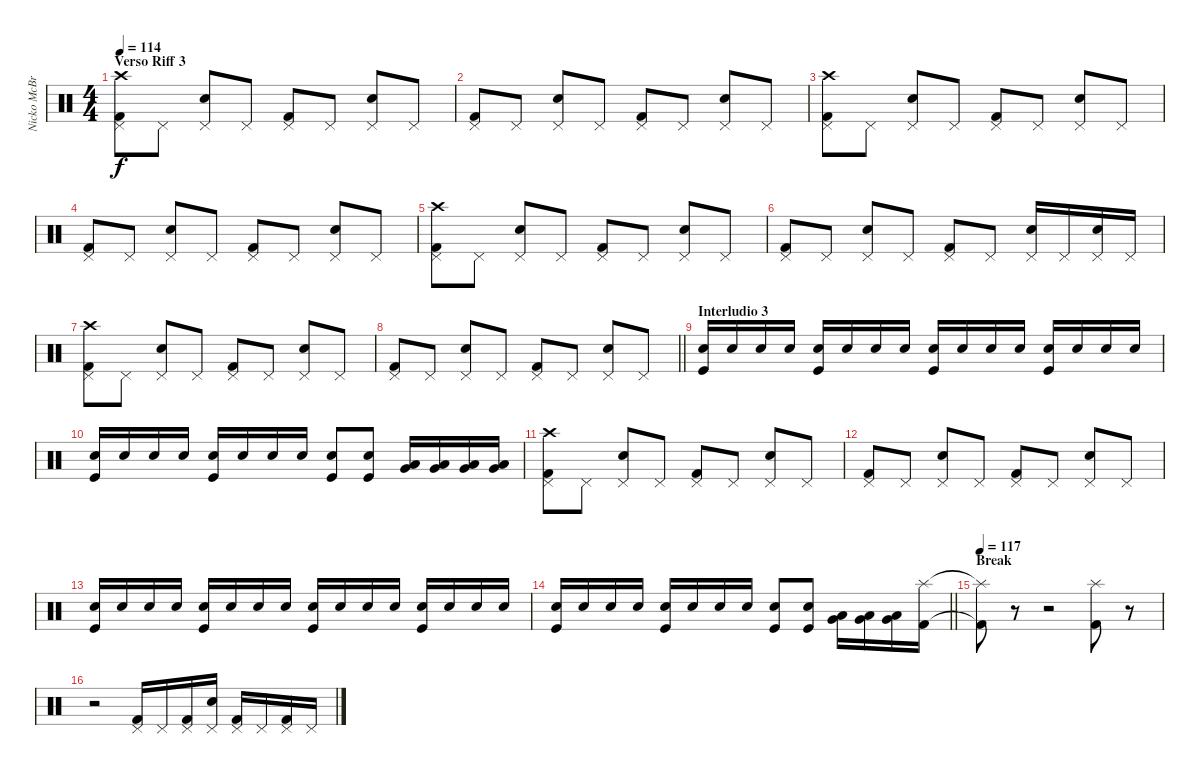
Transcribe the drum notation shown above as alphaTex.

\track ("Nicko McBrain" "Nicko McBr") {instrument percussion}
\staff {score}
\articulation defaults
\ts (4 4)
\section ("" "Verso Riff 3")
\tempo 114
\clef neutral
\ks c
("Kick (hit) 2" "Pedal Hi-Hat (hit)" "Crash high (hit)").8{dy f} "Pedal Hi-Hat (hit)".8 ("Snare (hit) 2" "Pedal Hi-Hat (hit)").8 "Pedal Hi-Hat (hit)".8 ("Kick (hit) 2" "Pedal Hi-Hat (hit)").8 "Pedal Hi-Hat (hit)".8 ("Snare (hit) 2" "Pedal Hi-Hat (hit)").8 "Pedal Hi-Hat (hit)".8 |
("Kick (hit) 2" "Pedal Hi-Hat (hit)").8 "Pedal Hi-Hat (hit)".8 ("Snare (hit) 2" "Pedal Hi-Hat (hit)").8 "Pedal Hi-Hat (hit)".8 ("Kick (hit) 2" "Pedal Hi-Hat (hit)").8 "Pedal Hi-Hat (hit)".8 ("Snare (hit) 2" "Pedal Hi-Hat (hit)").8 "Pedal Hi-Hat (hit)".8 |
("Kick (hit) 2" "Pedal Hi-Hat (hit)" "Crash high (hit)").8 "Pedal Hi-Hat (hit)".8 ("Snare (hit) 2" "Pedal Hi-Hat (hit)").8 "Pedal Hi-Hat (hit)".8 ("Kick (hit) 2" "Pedal Hi-Hat (hit)").8 "Pedal Hi-Hat (hit)".8 ("Snare (hit) 2" "Pedal Hi-Hat (hit)").8 "Pedal Hi-Hat (hit)".8 |
("Kick (hit) 2" "Pedal Hi-Hat (hit)").8 "Pedal Hi-Hat (hit)".8 ("Snare (hit) 2" "Pedal Hi-Hat (hit)").8 "Pedal Hi-Hat (hit)".8 ("Kick (hit) 2" "Pedal Hi-Hat (hit)").8 "Pedal Hi-Hat (hit)".8 ("Snare (hit) 2" "Pedal Hi-Hat (hit)").8 "Pedal Hi-Hat (hit)".8 |
("Kick (hit) 2" "Pedal Hi-Hat (hit)" "Crash high (hit)").8 "Pedal Hi-Hat (hit)".8 ("Snare (hit) 2" "Pedal Hi-Hat (hit)").8 "Pedal Hi-Hat (hit)".8 ("Kick (hit) 2" "Pedal Hi-Hat (hit)").8 "Pedal Hi-Hat (hit)".8 ("Snare (hit) 2" "Pedal Hi-Hat (hit)").8 "Pedal Hi-Hat (hit)".8 |
("Kick (hit) 2" "Pedal Hi-Hat (hit)").8 "Pedal Hi-Hat (hit)".8 ("Snare (hit) 2" "Pedal Hi-Hat (hit)").8 "Pedal Hi-Hat (hit)".8 ("Kick (hit) 2" "Pedal Hi-Hat (hit)").8 "Pedal Hi-Hat (hit)".8 ("Snare (hit) 2" "Pedal Hi-Hat (hit)").16 "Pedal Hi-Hat (hit)".16 ("Snare (hit) 2" "Pedal Hi-Hat (hit)").16 "Pedal Hi-Hat (hit)".16 |
("Kick (hit) 2" "Pedal Hi-Hat (hit)" "Crash high (hit)").8 "Pedal Hi-Hat (hit)".8 ("Snare (hit) 2" "Pedal Hi-Hat (hit)").8 "Pedal Hi-Hat (hit)".8 ("Kick (hit) 2" "Pedal Hi-Hat (hit)").8 "Pedal Hi-Hat (hit)".8 ("Snare (hit) 2" "Pedal Hi-Hat (hit)").8 "Pedal Hi-Hat (hit)".8 |
\barLineRight lightlight
("Kick (hit) 2" "Pedal Hi-Hat (hit)").8 "Pedal Hi-Hat (hit)".8 ("Snare (hit) 2" "Pedal Hi-Hat (hit)").8 "Pedal Hi-Hat (hit)".8 ("Kick (hit) 2" "Pedal Hi-Hat (hit)").8 "Pedal Hi-Hat (hit)".8 ("Snare (hit) 2" "Pedal Hi-Hat (hit)").8 "Pedal Hi-Hat (hit)".8 |
\section ("" "Interludio 3")
("Snare (hit) 2" "Kick (hit)").16 "Snare (hit) 2".16 "Snare (hit) 2".16 "Snare (hit) 2".16 ("Snare (hit) 2" "Kick (hit)").16 "Snare (hit) 2".16 "Snare (hit) 2".16 "Snare (hit) 2".16 ("Snare (hit) 2" "Kick (hit)").16 "Snare (hit) 2".16 "Snare (hit) 2".16 "Snare (hit) 2".16 ("Snare (hit) 2" "Kick (hit)").16 "Snare (hit) 2".16 "Snare (hit) 2".16 "Snare (hit) 2".16 |
("Snare (hit) 2" "Kick (hit)").16 "Snare (hit) 2".16 "Snare (hit) 2".16 "Snare (hit) 2".16 ("Snare (hit) 2" "Kick (hit)").16 "Snare (hit) 2".16 "Snare (hit) 2".16 "Snare (hit) 2".16 ("Snare (hit) 2" "Kick (hit)").8 ("Snare (hit) 2" "Kick (hit)").8 ("Low Floor Tom (hit)" "Very Low Tom (hit)").16 ("Low Floor Tom (hit)" "Very Low Tom (hit)").16 ("Very Low Tom (hit)" "Low Tom (hit)").16 ("Very Low Tom (hit)" "Low Tom (hit)").16 |
("Kick (hit) 2" "Pedal Hi-Hat (hit)" "Crash high (hit)").8 "Pedal Hi-Hat (hit)".8 ("Snare (hit) 2" "Pedal Hi-Hat (hit)").8 "Pedal Hi-Hat (hit)".8 ("Kick (hit) 2" "Pedal Hi-Hat (hit)").8 "Pedal Hi-Hat (hit)".8 ("Snare (hit) 2" "Pedal Hi-Hat (hit)").8 "Pedal Hi-Hat (hit)".8 |
("Kick (hit) 2" "Pedal Hi-Hat (hit)").8 "Pedal Hi-Hat (hit)".8 ("Snare (hit) 2" "Pedal Hi-Hat (hit)").8 "Pedal Hi-Hat (hit)".8 ("Kick (hit) 2" "Pedal Hi-Hat (hit)").8 "Pedal Hi-Hat (hit)".8 ("Snare (hit) 2" "Pedal Hi-Hat (hit)").8 "Pedal Hi-Hat (hit)".8 |
("Snare (hit) 2" "Kick (hit)").16 "Snare (hit) 2".16 "Snare (hit) 2".16 "Snare (hit) 2".16 ("Snare (hit) 2" "Kick (hit)").16 "Snare (hit) 2".16 "Snare (hit) 2".16 "Snare (hit) 2".16 ("Snare (hit) 2" "Kick (hit)").16 "Snare (hit) 2".16 "Snare (hit) 2".16 "Snare (hit) 2".16 ("Snare (hit) 2" "Kick (hit)").16 "Snare (hit) 2".16 "Snare (hit) 2".16 "Snare (hit) 2".16 |
\barLineRight lightlight
("Snare (hit) 2" "Kick (hit)").16 "Snare (hit) 2".16 "Snare (hit) 2".16 "Snare (hit) 2".16 ("Snare (hit) 2" "Kick (hit)").16 "Snare (hit) 2".16 "Snare (hit) 2".16 "Snare (hit) 2".16 ("Snare (hit) 2" "Kick (hit)").8 ("Snare (hit) 2" "Kick (hit)").8 ("Low Floor Tom (hit)" "Very Low Tom (hit)").16 ("Low Floor Tom (hit)" "Very Low Tom (hit)").16 ("Very Low Tom (hit)" "Low Tom (hit)").16 ("Kick (hit) 2" "Splash (hit)").16 |
\section ("" "Break")
\tempo 117
("Kick (hit) 2"{t} "Splash (hit)"{t}).8 r.8 r.2 ("Kick (hit) 2" "Splash (hit)").8 r.8 |
r.2 ("Kick (hit) 2" "Pedal Hi-Hat (hit)").16 "Pedal Hi-Hat (hit)".16 ("Kick (hit) 2" "Pedal Hi-Hat (hit)").16 ("Snare (hit) 2" "Pedal Hi-Hat (hit)").16 ("Kick (hit) 2" "Pedal Hi-Hat (hit)").16 "Pedal Hi-Hat (hit)".16 ("Kick (hit) 2" "Pedal Hi-Hat (hit)").16 "Pedal Hi-Hat (hit)".16
